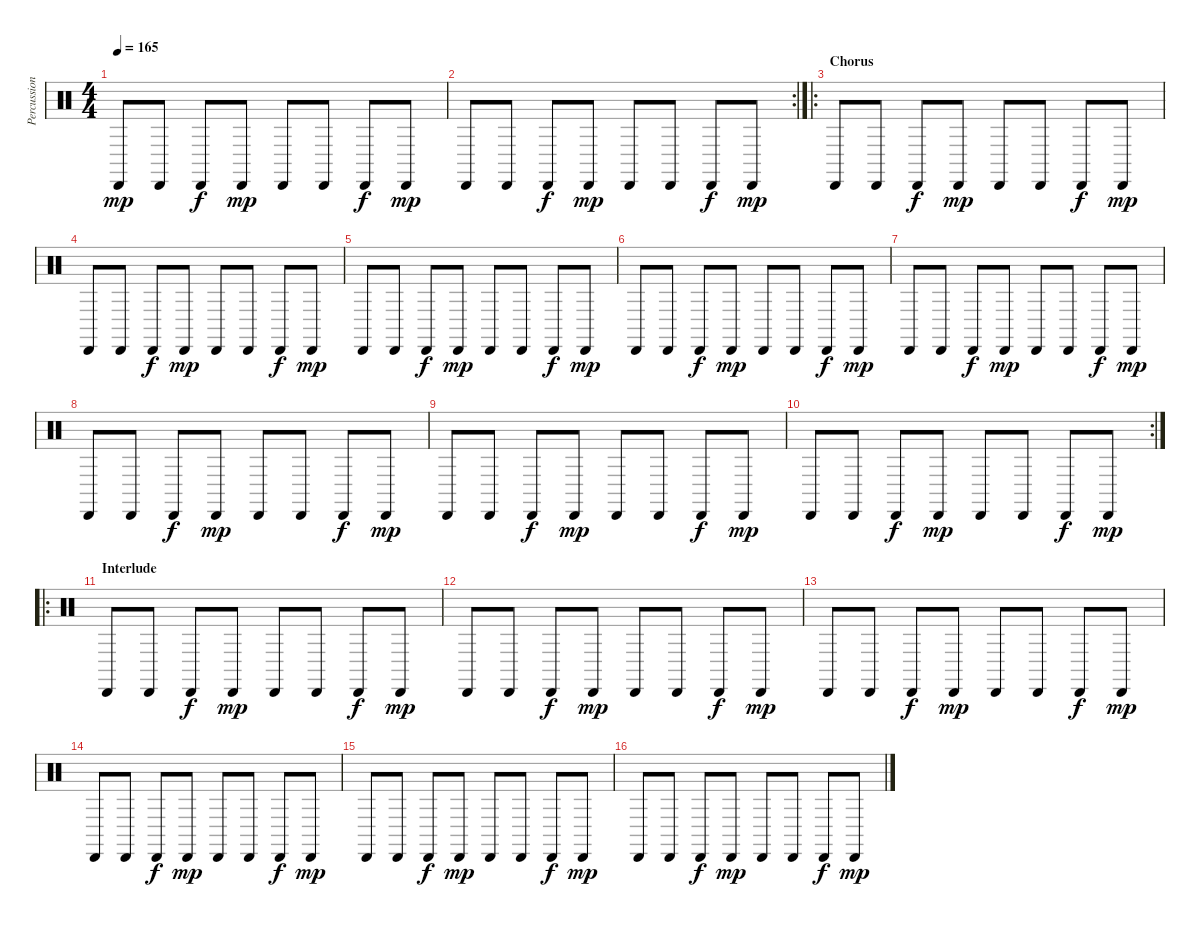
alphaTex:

\track ("Percussion" "Percussion") {instrument percussion}
\staff {score}
\articulation defaults
\ts (4 4)
\tempo 165
\clef neutral
\ks c "Cabasa (hit)".8{dy mp} "Cabasa (hit)".8 "Cabasa (hit)".8{dy f} "Cabasa (hit)".8{dy mp} "Cabasa (hit)".8 "Cabasa (hit)".8 "Cabasa (hit)".8{dy f} "Cabasa (hit)".8{dy mp}
|
\rc 2 "Cabasa (hit)".8 "Cabasa (hit)".8 "Cabasa (hit)".8{dy f} "Cabasa (hit)".8{dy mp} "Cabasa (hit)".8 "Cabasa (hit)".8 "Cabasa (hit)".8{dy f} "Cabasa (hit)".8{dy mp}
|
\ro
\section ("" "Chorus")
"Cabasa (hit)".8 "Cabasa (hit)".8 "Cabasa (hit)".8{dy f} "Cabasa (hit)".8{dy mp} "Cabasa (hit)".8 "Cabasa (hit)".8 "Cabasa (hit)".8{dy f} "Cabasa (hit)".8{dy mp} |
"Cabasa (hit)".8 "Cabasa (hit)".8 "Cabasa (hit)".8{dy f} "Cabasa (hit)".8{dy mp} "Cabasa (hit)".8 "Cabasa (hit)".8 "Cabasa (hit)".8{dy f} "Cabasa (hit)".8{dy mp} |
"Cabasa (hit)".8 "Cabasa (hit)".8 "Cabasa (hit)".8{dy f} "Cabasa (hit)".8{dy mp} "Cabasa (hit)".8 "Cabasa (hit)".8 "Cabasa (hit)".8{dy f} "Cabasa (hit)".8{dy mp} |
"Cabasa (hit)".8 "Cabasa (hit)".8 "Cabasa (hit)".8{dy f} "Cabasa (hit)".8{dy mp} "Cabasa (hit)".8 "Cabasa (hit)".8 "Cabasa (hit)".8{dy f} "Cabasa (hit)".8{dy mp} |
"Cabasa (hit)".8 "Cabasa (hit)".8 "Cabasa (hit)".8{dy f} "Cabasa (hit)".8{dy mp} "Cabasa (hit)".8 "Cabasa (hit)".8 "Cabasa (hit)".8{dy f} "Cabasa (hit)".8{dy mp} |
"Cabasa (hit)".8 "Cabasa (hit)".8 "Cabasa (hit)".8{dy f} "Cabasa (hit)".8{dy mp} "Cabasa (hit)".8 "Cabasa (hit)".8 "Cabasa (hit)".8{dy f} "Cabasa (hit)".8{dy mp} |
"Cabasa (hit)".8 "Cabasa (hit)".8 "Cabasa (hit)".8{dy f} "Cabasa (hit)".8{dy mp} "Cabasa (hit)".8 "Cabasa (hit)".8 "Cabasa (hit)".8{dy f} "Cabasa (hit)".8{dy mp} |
\rc 2 "Cabasa (hit)".8 "Cabasa (hit)".8 "Cabasa (hit)".8{dy f} "Cabasa (hit)".8{dy mp} "Cabasa (hit)".8 "Cabasa (hit)".8 "Cabasa (hit)".8{dy f} "Cabasa (hit)".8{dy mp}
|
\ro
\section ("" "Interlude")
"Cabasa (hit)".8 "Cabasa (hit)".8 "Cabasa (hit)".8{dy f} "Cabasa (hit)".8{dy mp} "Cabasa (hit)".8 "Cabasa (hit)".8 "Cabasa (hit)".8{dy f} "Cabasa (hit)".8{dy mp} |
"Cabasa (hit)".8 "Cabasa (hit)".8 "Cabasa (hit)".8{dy f} "Cabasa (hit)".8{dy mp} "Cabasa (hit)".8 "Cabasa (hit)".8 "Cabasa (hit)".8{dy f} "Cabasa (hit)".8{dy mp} |
"Cabasa (hit)".8 "Cabasa (hit)".8 "Cabasa (hit)".8{dy f} "Cabasa (hit)".8{dy mp} "Cabasa (hit)".8 "Cabasa (hit)".8 "Cabasa (hit)".8{dy f} "Cabasa (hit)".8{dy mp} |
"Cabasa (hit)".8 "Cabasa (hit)".8 "Cabasa (hit)".8{dy f} "Cabasa (hit)".8{dy mp} "Cabasa (hit)".8 "Cabasa (hit)".8 "Cabasa (hit)".8{dy f} "Cabasa (hit)".8{dy mp} |
"Cabasa (hit)".8 "Cabasa (hit)".8 "Cabasa (hit)".8{dy f} "Cabasa (hit)".8{dy mp} "Cabasa (hit)".8 "Cabasa (hit)".8 "Cabasa (hit)".8{dy f} "Cabasa (hit)".8{dy mp} |
"Cabasa (hit)".8 "Cabasa (hit)".8 "Cabasa (hit)".8{dy f} "Cabasa (hit)".8{dy mp} "Cabasa (hit)".8 "Cabasa (hit)".8 "Cabasa (hit)".8{dy f} "Cabasa (hit)".8{dy mp}
